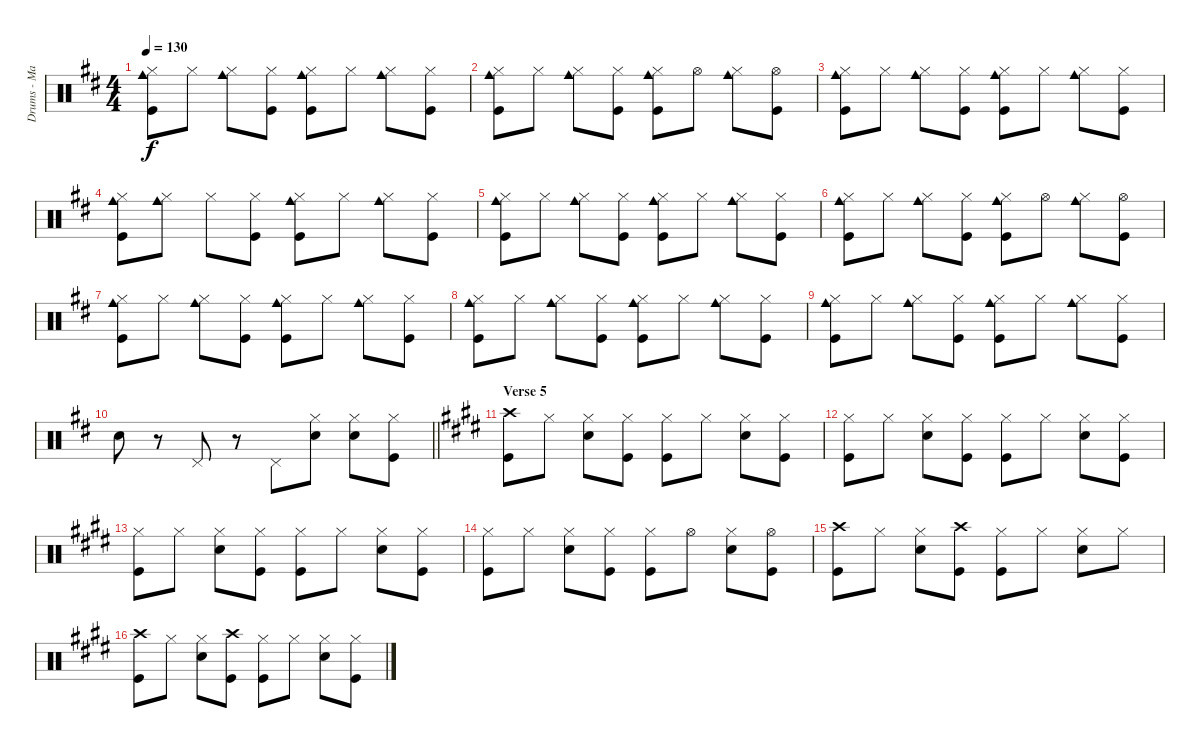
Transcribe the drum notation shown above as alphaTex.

\track ("Drums - Matt Helders" "Drums - Ma") {instrument percussion}
\staff {score}
\articulation defaults
\ts (4 4)
\tempo 130
\clef neutral
\ks d
("Hi-Hat (closed)" "Cowbell medium (hit)" "Kick (hit)").8{dy f} "Hi-Hat (closed)".8 ("Hi-Hat (closed)" "Cowbell medium (hit)").8 ("Hi-Hat (closed)" "Kick (hit)").8 ("Hi-Hat (closed)" "Cowbell medium (hit)" "Kick (hit)").8 "Hi-Hat (closed)".8 ("Hi-Hat (closed)" "Cowbell medium (hit)").8 ("Hi-Hat (closed)" "Kick (hit)").8 |
("Hi-Hat (closed)" "Cowbell medium (hit)" "Kick (hit)").8 "Hi-Hat (closed)".8 ("Hi-Hat (closed)" "Cowbell medium (hit)").8 ("Hi-Hat (closed)" "Kick (hit)").8 ("Hi-Hat (closed)" "Cowbell medium (hit)" "Kick (hit)").8 "Hi-Hat (open)".8 ("Hi-Hat (closed)" "Cowbell medium (hit)").8 ("Hi-Hat (open)" "Kick (hit)").8 |
("Hi-Hat (closed)" "Cowbell medium (hit)" "Kick (hit)").8 "Hi-Hat (closed)".8 ("Hi-Hat (closed)" "Cowbell medium (hit)").8 ("Hi-Hat (closed)" "Kick (hit)").8 ("Hi-Hat (closed)" "Cowbell medium (hit)" "Kick (hit)").8 "Hi-Hat (closed)".8 ("Hi-Hat (closed)" "Cowbell medium (hit)").8 ("Hi-Hat (closed)" "Kick (hit)").8 |
("Hi-Hat (closed)" "Cowbell medium (hit)" "Kick (hit)").8 ("Hi-Hat (closed)" "Cowbell medium (hit)").8 "Hi-Hat (closed)".8 ("Hi-Hat (closed)" "Kick (hit)").8 ("Hi-Hat (closed)" "Cowbell medium (hit)" "Kick (hit)").8 "Hi-Hat (closed)".8 ("Hi-Hat (closed)" "Cowbell medium (hit)").8 ("Hi-Hat (closed)" "Kick (hit)").8 |
("Hi-Hat (closed)" "Cowbell medium (hit)" "Kick (hit)").8 "Hi-Hat (closed)".8 ("Hi-Hat (closed)" "Cowbell medium (hit)").8 ("Hi-Hat (closed)" "Kick (hit)").8 ("Hi-Hat (closed)" "Cowbell medium (hit)" "Kick (hit)").8 "Hi-Hat (closed)".8 ("Hi-Hat (closed)" "Cowbell medium (hit)").8 ("Hi-Hat (closed)" "Kick (hit)").8 |
("Hi-Hat (closed)" "Cowbell medium (hit)" "Kick (hit)").8 "Hi-Hat (closed)".8 ("Hi-Hat (closed)" "Cowbell medium (hit)").8 ("Hi-Hat (closed)" "Kick (hit)").8 ("Hi-Hat (closed)" "Cowbell medium (hit)" "Kick (hit)").8 "Hi-Hat (open)".8 ("Hi-Hat (closed)" "Cowbell medium (hit)").8 ("Hi-Hat (open)" "Kick (hit)").8 |
("Hi-Hat (closed)" "Cowbell medium (hit)" "Kick (hit)").8 "Hi-Hat (closed)".8 ("Hi-Hat (closed)" "Cowbell medium (hit)").8 ("Hi-Hat (closed)" "Kick (hit)").8 ("Hi-Hat (closed)" "Cowbell medium (hit)" "Kick (hit)").8 "Hi-Hat (closed)".8 ("Hi-Hat (closed)" "Cowbell medium (hit)").8 ("Hi-Hat (closed)" "Kick (hit)").8 |
("Hi-Hat (closed)" "Cowbell medium (hit)" "Kick (hit)").8 "Hi-Hat (closed)".8 ("Hi-Hat (closed)" "Cowbell medium (hit)").8 ("Hi-Hat (closed)" "Kick (hit)").8 ("Hi-Hat (closed)" "Cowbell medium (hit)" "Kick (hit)").8 "Hi-Hat (closed)".8 ("Hi-Hat (closed)" "Cowbell medium (hit)").8 ("Hi-Hat (closed)" "Kick (hit)").8 |
("Hi-Hat (closed)" "Cowbell medium (hit)" "Kick (hit)").8 "Hi-Hat (closed)".8 ("Hi-Hat (closed)" "Cowbell medium (hit)").8 ("Hi-Hat (closed)" "Kick (hit)").8 ("Hi-Hat (closed)" "Cowbell medium (hit)" "Kick (hit)").8 "Hi-Hat (closed)".8 ("Hi-Hat (closed)" "Cowbell medium (hit)").8 ("Hi-Hat (closed)" "Kick (hit)").8 |
\barLineRight lightlight "Snare (hit) 2".8
r.8 "Pedal Hi-Hat (hit)".8 r.8 "Pedal Hi-Hat (hit)".8 ("Hi-Hat (closed)" "Snare (hit) 2").8 ("Hi-Hat (closed)" "Snare (hit) 2").8 ("Hi-Hat (closed)" "Kick (hit)").8 |
\section ("" "Verse 5")
\ks e
("Crash high (hit)" "Kick (hit)").8 "Hi-Hat (closed)".8 ("Hi-Hat (closed)" "Snare (hit) 2").8 ("Hi-Hat (closed)" "Kick (hit)").8 ("Hi-Hat (closed)" "Kick (hit)").8 "Hi-Hat (closed)".8 ("Hi-Hat (closed)" "Snare (hit) 2").8 ("Hi-Hat (closed)" "Kick (hit)").8 |
("Hi-Hat (closed)" "Kick (hit)").8 "Hi-Hat (closed)".8 ("Hi-Hat (closed)" "Snare (hit) 2").8 ("Hi-Hat (closed)" "Kick (hit)").8 ("Hi-Hat (closed)" "Kick (hit)").8 "Hi-Hat (closed)".8 ("Hi-Hat (closed)" "Snare (hit) 2").8 ("Hi-Hat (closed)" "Kick (hit)").8 |
("Hi-Hat (closed)" "Kick (hit)").8 "Hi-Hat (closed)".8 ("Hi-Hat (closed)" "Snare (hit) 2").8 ("Hi-Hat (closed)" "Kick (hit)").8 ("Hi-Hat (closed)" "Kick (hit)").8 "Hi-Hat (closed)".8 ("Hi-Hat (closed)" "Snare (hit) 2").8 ("Hi-Hat (closed)" "Kick (hit)").8 |
("Hi-Hat (closed)" "Kick (hit)").8 "Hi-Hat (closed)".8 ("Hi-Hat (closed)" "Snare (hit) 2").8 ("Hi-Hat (closed)" "Kick (hit)").8 ("Hi-Hat (closed)" "Kick (hit)").8 "Hi-Hat (open)".8 ("Hi-Hat (closed)" "Snare (hit) 2").8 ("Hi-Hat (open)" "Kick (hit)").8 |
("Crash high (hit)" "Kick (hit)").8 "Hi-Hat (closed)".8 ("Hi-Hat (closed)" "Snare (hit) 2").8 ("Crash high (hit)" "Kick (hit)").8 ("Hi-Hat (closed)" "Kick (hit)").8 "Hi-Hat (closed)".8 ("Hi-Hat (closed)" "Snare (hit) 2").8 "Hi-Hat (closed)".8 |
("Crash high (hit)" "Kick (hit)").8 "Hi-Hat (closed)".8 ("Hi-Hat (closed)" "Snare (hit) 2").8 ("Crash high (hit)" "Kick (hit)").8 ("Hi-Hat (closed)" "Kick (hit)").8 "Hi-Hat (closed)".8 ("Hi-Hat (closed)" "Snare (hit) 2").8 ("Hi-Hat (closed)" "Kick (hit)").8
